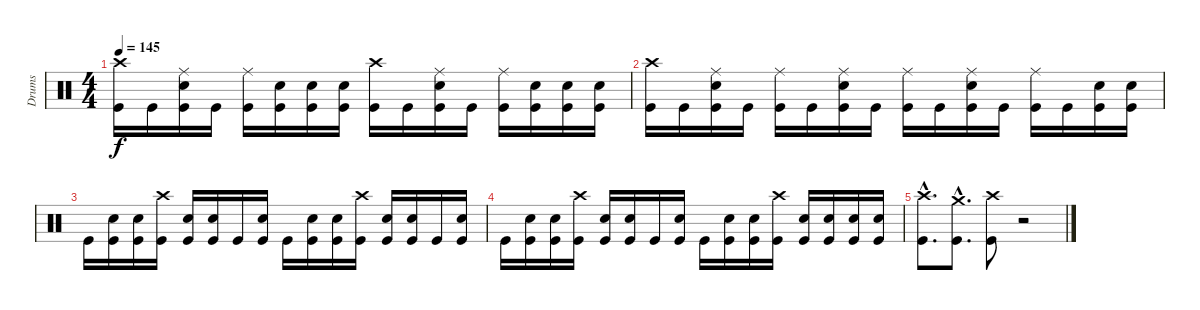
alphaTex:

\track ("Drums" "Drums") {instrument percussion}
\staff {score}
\articulation defaults
\ts (4 4)
\tempo 145
\clef neutral
\ks c
("Crash high (hit)" "Kick (hit)").16{dy f} "Kick (hit)".16 ("Ride (middle)" "Snare (hit) 2" "Kick (hit)").16 "Kick (hit)".16 ("Ride (middle)" "Kick (hit)").16 ("Snare (hit) 2" "Kick (hit)").16 ("Snare (hit) 2" "Kick (hit)").16 ("Snare (hit) 2" "Kick (hit)").16 ("Crash high (hit)" "Kick (hit)").16 "Kick (hit)".16 ("Ride (middle)" "Snare (hit) 2" "Kick (hit)").16 "Kick (hit)".16 ("Ride (middle)" "Kick (hit)").16 ("Snare (hit) 2" "Kick (hit)").16 ("Snare (hit) 2" "Kick (hit)").16 ("Snare (hit) 2" "Kick (hit)").16 |
("Crash high (hit)" "Kick (hit)").16 "Kick (hit)".16 ("Ride (middle)" "Snare (hit) 2" "Kick (hit)").16 "Kick (hit)".16 ("Ride (middle)" "Kick (hit)").16 "Kick (hit)".16 ("Ride (middle)" "Snare (hit) 2" "Kick (hit)").16 "Kick (hit)".16 ("Ride (middle)" "Kick (hit)").16 "Kick (hit)".16 ("Ride (middle)" "Snare (hit) 2" "Kick (hit)").16 "Kick (hit)".16 ("Ride (middle)" "Kick (hit)").16 "Kick (hit)".16 ("Snare (hit) 2" "Kick (hit)").16 ("Snare (hit) 2" "Kick (hit)").16 |
"Kick (hit)".16 ("Snare (hit) 2" "Kick (hit)").16 ("Snare (hit) 2" "Kick (hit)").16 ("Crash high (hit)" "Kick (hit)").16 ("Snare (hit) 2" "Kick (hit)").16 ("Snare (hit) 2" "Kick (hit)").16 "Kick (hit)".16 ("Snare (hit) 2" "Kick (hit)").16 "Kick (hit)".16 ("Snare (hit) 2" "Kick (hit)").16 ("Snare (hit) 2" "Kick (hit)").16 ("Crash high (hit)" "Kick (hit)").16 ("Snare (hit) 2" "Kick (hit)").16 ("Snare (hit) 2" "Kick (hit)").16 "Kick (hit)".16 ("Snare (hit) 2" "Kick (hit)").16 |
"Kick (hit)".16 ("Snare (hit) 2" "Kick (hit)").16 ("Snare (hit) 2" "Kick (hit)").16 ("Crash high (hit)" "Kick (hit)").16 ("Snare (hit) 2" "Kick (hit)").16 ("Snare (hit) 2" "Kick (hit)").16 "Kick (hit)".16 ("Snare (hit) 2" "Kick (hit)").16 "Kick (hit)".16 ("Snare (hit) 2" "Kick (hit)").16 ("Snare (hit) 2" "Kick (hit)").16 ("Crash high (hit)" "Kick (hit)").16 ("Snare (hit) 2" "Kick (hit)").16 ("Snare (hit) 2" "Kick (hit)").16 ("Snare (hit) 2" "Kick (hit)").16 ("Snare (hit) 2" "Kick (hit)").16 |
("Crash high (hit)"{hac} "Kick (hit)"{hac}).8{d} ("Crash medium (hit)"{hac} "Kick (hit)"{hac}).8{d} ("Crash high (hit)" "Kick (hit)").8 r.2
